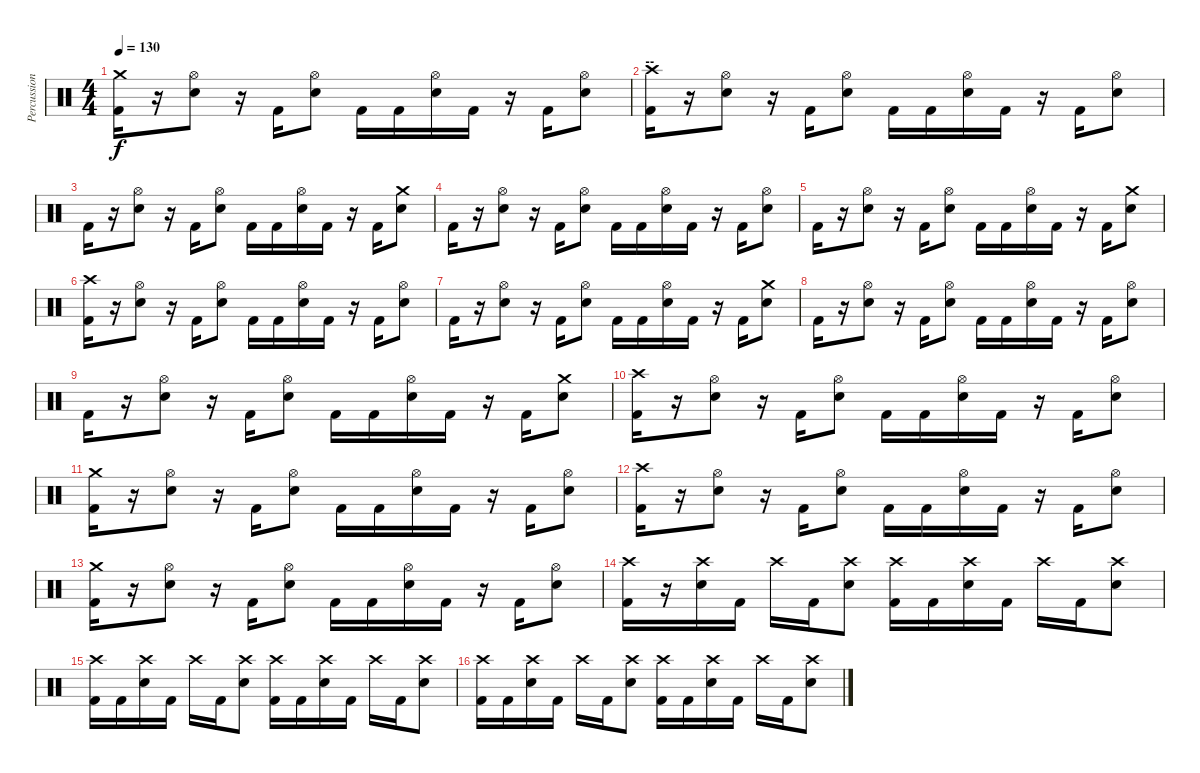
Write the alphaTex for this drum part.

\track ("Percussion" "Percussion") {instrument percussion}
\staff {score}
\articulation defaults
\ts (4 4)
\tempo 130
\clef neutral
\ks c
("Kick (hit) 2" "Crash medium (hit)").16{dy f} r.16 ("Electric Snare (hit)" "Hi-Hat (open)").8 r.16 "Kick (hit) 2".16 ("Electric Snare (hit)" "Hi-Hat (open)").8 "Kick (hit) 2".16 "Kick (hit) 2".16 ("Electric Snare (hit)" "Hi-Hat (open)").16 "Kick (hit) 2".16 r.16 "Kick (hit) 2".16 ("Electric Snare (hit)" "Hi-Hat (open)").8 |
\section ("" "--")
("Kick (hit) 2" "Crash high (hit)").16 r.16 ("Electric Snare (hit)" "Hi-Hat (open)").8 r.16 "Kick (hit) 2".16 ("Electric Snare (hit)" "Hi-Hat (open)").8 "Kick (hit) 2".16 "Kick (hit) 2".16 ("Electric Snare (hit)" "Hi-Hat (open)").16 "Kick (hit) 2".16 r.16 "Kick (hit) 2".16 ("Electric Snare (hit)" "Hi-Hat (open)").8 |
"Kick (hit) 2".16 r.16 ("Electric Snare (hit)" "Hi-Hat (open)").8 r.16 "Kick (hit) 2".16 ("Electric Snare (hit)" "Hi-Hat (open)").8 "Kick (hit) 2".16 "Kick (hit) 2".16 ("Electric Snare (hit)" "Hi-Hat (open)").16 "Kick (hit) 2".16 r.16 "Kick (hit) 2".16 ("Electric Snare (hit)" "Crash medium (hit)").8 |
"Kick (hit) 2".16 r.16 ("Electric Snare (hit)" "Hi-Hat (open)").8 r.16 "Kick (hit) 2".16 ("Electric Snare (hit)" "Hi-Hat (open)").8 "Kick (hit) 2".16 "Kick (hit) 2".16 ("Electric Snare (hit)" "Hi-Hat (open)").16 "Kick (hit) 2".16 r.16 "Kick (hit) 2".16 ("Electric Snare (hit)" "Hi-Hat (open)").8 |
"Kick (hit) 2".16 r.16 ("Electric Snare (hit)" "Hi-Hat (open)").8 r.16 "Kick (hit) 2".16 ("Electric Snare (hit)" "Hi-Hat (open)").8 "Kick (hit) 2".16 "Kick (hit) 2".16 ("Electric Snare (hit)" "Hi-Hat (open)").16 "Kick (hit) 2".16 r.16 "Kick (hit) 2".16 ("Electric Snare (hit)" "Crash medium (hit)").8 |
("Kick (hit) 2" "Crash high (hit)").16 r.16 ("Electric Snare (hit)" "Hi-Hat (open)").8 r.16 "Kick (hit) 2".16 ("Electric Snare (hit)" "Hi-Hat (open)").8 "Kick (hit) 2".16 "Kick (hit) 2".16 ("Electric Snare (hit)" "Hi-Hat (open)").16 "Kick (hit) 2".16 r.16 "Kick (hit) 2".16 ("Electric Snare (hit)" "Hi-Hat (open)").8 |
"Kick (hit) 2".16 r.16 ("Electric Snare (hit)" "Hi-Hat (open)").8 r.16 "Kick (hit) 2".16 ("Electric Snare (hit)" "Hi-Hat (open)").8 "Kick (hit) 2".16 "Kick (hit) 2".16 ("Electric Snare (hit)" "Hi-Hat (open)").16 "Kick (hit) 2".16 r.16 "Kick (hit) 2".16 ("Electric Snare (hit)" "Crash medium (hit)").8 |
"Kick (hit) 2".16 r.16 ("Electric Snare (hit)" "Hi-Hat (open)").8 r.16 "Kick (hit) 2".16 ("Electric Snare (hit)" "Hi-Hat (open)").8 "Kick (hit) 2".16 "Kick (hit) 2".16 ("Electric Snare (hit)" "Hi-Hat (open)").16 "Kick (hit) 2".16 r.16 "Kick (hit) 2".16 ("Electric Snare (hit)" "Hi-Hat (open)").8 |
"Kick (hit) 2".16 r.16 ("Electric Snare (hit)" "Hi-Hat (open)").8 r.16 "Kick (hit) 2".16 ("Electric Snare (hit)" "Hi-Hat (open)").8 "Kick (hit) 2".16 "Kick (hit) 2".16 ("Electric Snare (hit)" "Hi-Hat (open)").16 "Kick (hit) 2".16 r.16 "Kick (hit) 2".16 ("Electric Snare (hit)" "Crash medium (hit)").8 |
("Kick (hit) 2" "Crash high (hit)").16 r.16 ("Electric Snare (hit)" "Hi-Hat (open)").8 r.16 "Kick (hit) 2".16 ("Electric Snare (hit)" "Hi-Hat (open)").8 "Kick (hit) 2".16 "Kick (hit) 2".16 ("Electric Snare (hit)" "Hi-Hat (open)").16 "Kick (hit) 2".16 r.16 "Kick (hit) 2".16 ("Electric Snare (hit)" "Hi-Hat (open)").8 |
("Kick (hit) 2" "Crash medium (hit)").16 r.16 ("Electric Snare (hit)" "Hi-Hat (open)").8 r.16 "Kick (hit) 2".16 ("Electric Snare (hit)" "Hi-Hat (open)").8 "Kick (hit) 2".16 "Kick (hit) 2".16 ("Electric Snare (hit)" "Hi-Hat (open)").16 "Kick (hit) 2".16 r.16 "Kick (hit) 2".16 ("Electric Snare (hit)" "Hi-Hat (open)").8 |
("Kick (hit) 2" "Crash high (hit)").16 r.16 ("Electric Snare (hit)" "Hi-Hat (open)").8 r.16 "Kick (hit) 2".16 ("Electric Snare (hit)" "Hi-Hat (open)").8 "Kick (hit) 2".16 "Kick (hit) 2".16 ("Electric Snare (hit)" "Hi-Hat (open)").16 "Kick (hit) 2".16 r.16 "Kick (hit) 2".16 ("Electric Snare (hit)" "Hi-Hat (open)").8 |
("Kick (hit) 2" "Crash medium (hit)").16 r.16 ("Electric Snare (hit)" "Hi-Hat (open)").8 r.16 "Kick (hit) 2".16 ("Electric Snare (hit)" "Hi-Hat (open)").8 "Kick (hit) 2".16 "Kick (hit) 2".16 ("Electric Snare (hit)" "Hi-Hat (open)").16 "Kick (hit) 2".16 r.16 "Kick (hit) 2".16 ("Electric Snare (hit)" "Hi-Hat (open)").8 |
("Kick (hit) 2" "Crash high (hit)").16 r.16 ("Electric Snare (hit)" "Crash high (hit)").16 "Kick (hit) 2".16 "Crash high (hit)".16 "Kick (hit) 2".16 ("Electric Snare (hit)" "Crash high (hit)").8 ("Kick (hit) 2" "Crash high (hit)").16 "Kick (hit) 2".16 ("Electric Snare (hit)" "Crash high (hit)").16 "Kick (hit) 2".16 "Crash high (hit)".16 "Kick (hit) 2".16 ("Electric Snare (hit)" "Crash high (hit)").8 |
("Kick (hit) 2" "Crash high (hit)").16 "Kick (hit) 2".16 ("Electric Snare (hit)" "Crash high (hit)").16 "Kick (hit) 2".16 "Crash high (hit)".16 "Kick (hit) 2".16 ("Electric Snare (hit)" "Crash high (hit)").8 ("Kick (hit) 2" "Crash high (hit)").16 "Kick (hit) 2".16 ("Electric Snare (hit)" "Crash high (hit)").16 "Kick (hit) 2".16 "Crash high (hit)".16 "Kick (hit) 2".16 ("Electric Snare (hit)" "Crash high (hit)").8 |
("Kick (hit) 2" "Crash high (hit)").16 "Kick (hit) 2".16 ("Electric Snare (hit)" "Crash high (hit)").16 "Kick (hit) 2".16 "Crash high (hit)".16 "Kick (hit) 2".16 ("Electric Snare (hit)" "Crash high (hit)").8 ("Kick (hit) 2" "Crash high (hit)").16 "Kick (hit) 2".16 ("Electric Snare (hit)" "Crash high (hit)").16 "Kick (hit) 2".16 "Crash high (hit)".16 "Kick (hit) 2".16 ("Electric Snare (hit)" "Crash high (hit)").8
